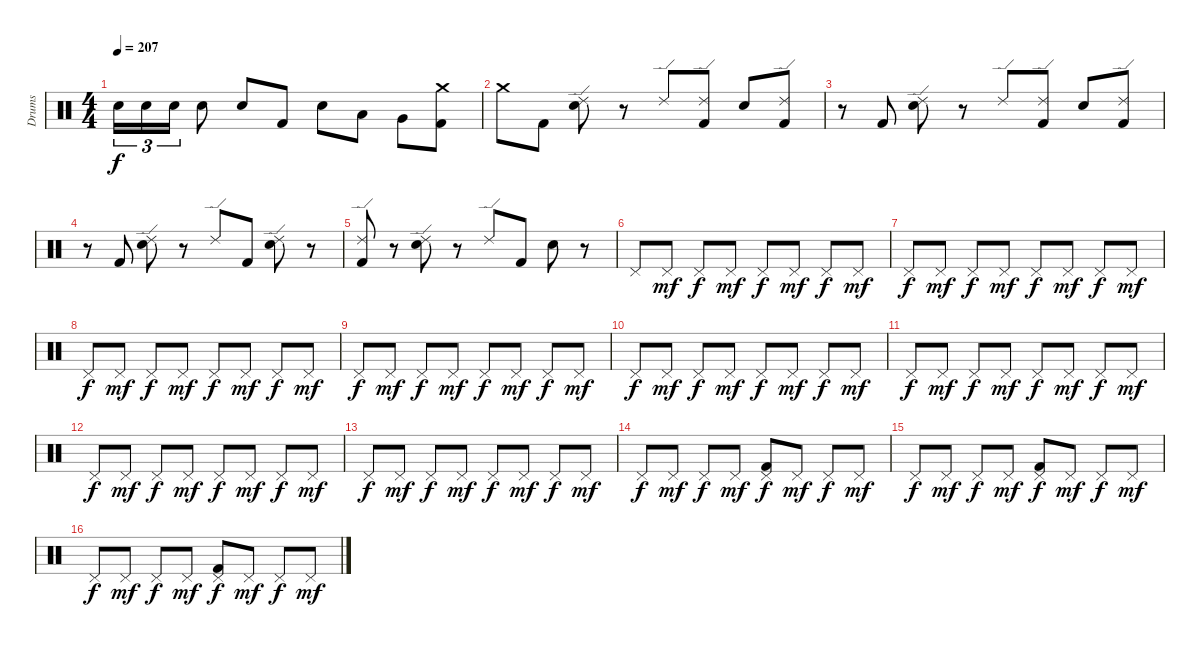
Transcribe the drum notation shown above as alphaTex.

\track ("Drums" "Drums") {instrument percussion}
\staff {score}
\articulation defaults
\ts (4 4)
\tempo 207
\clef neutral
\ks c "Snare (hit) 2".16{tu (3 2) dy f} "Snare (hit) 2".16{tu (3 2)} "Snare (hit) 2".16{tu (3 2)} "Snare (hit) 2".8 "Snare (hit) 2".8 "Kick (hit) 2".8 "Snare (hit) 2".8 "Low Tom (hit)".8 "Very Low Tom (hit)".8
("Crash medium (hit)" "Kick (hit) 2").8 |
"Crash medium (hit)".8 "Kick (hit) 2".8 ("Ride (edge) 2" "Snare (hit) 2").8 r.8 "Ride (edge) 2".8 ("Ride (edge) 2" "Kick (hit) 2").8 "Snare (hit) 2".8 ("Ride (edge) 2" "Kick (hit) 2").8 |
r.8 "Kick (hit) 2".8 ("Ride (edge) 2" "Snare (hit) 2").8 r.8 "Ride (edge) 2".8 ("Ride (edge) 2" "Kick (hit) 2").8 "Snare (hit) 2".8 ("Ride (edge) 2" "Kick (hit) 2").8 |
r.8 "Kick (hit) 2".8 ("Ride (edge) 2" "Snare (hit) 2").8 r.8 "Ride (edge) 2".8 "Kick (hit) 2".8 ("Ride (edge) 2" "Snare (hit) 2").8 r.8 |
("Ride (edge) 2" "Kick (hit) 2").8 r.8 ("Ride (edge) 2" "Snare (hit) 2").8 r.8 "Ride (edge) 2".8 "Kick (hit) 2".8 "Snare (hit) 2".8 r.8 |
"Pedal Hi-Hat (hit)".8 "Pedal Hi-Hat (hit)".8{dy mf} "Pedal Hi-Hat (hit)".8{dy f} "Pedal Hi-Hat (hit)".8{dy mf} "Pedal Hi-Hat (hit)".8{dy f} "Pedal Hi-Hat (hit)".8{dy mf} "Pedal Hi-Hat (hit)".8{dy f} "Pedal Hi-Hat (hit)".8{dy mf} |
"Pedal Hi-Hat (hit)".8{dy f} "Pedal Hi-Hat (hit)".8{dy mf} "Pedal Hi-Hat (hit)".8{dy f} "Pedal Hi-Hat (hit)".8{dy mf} "Pedal Hi-Hat (hit)".8{dy f} "Pedal Hi-Hat (hit)".8{dy mf} "Pedal Hi-Hat (hit)".8{dy f} "Pedal Hi-Hat (hit)".8{dy mf} |
"Pedal Hi-Hat (hit)".8{dy f} "Pedal Hi-Hat (hit)".8{dy mf} "Pedal Hi-Hat (hit)".8{dy f} "Pedal Hi-Hat (hit)".8{dy mf} "Pedal Hi-Hat (hit)".8{dy f} "Pedal Hi-Hat (hit)".8{dy mf} "Pedal Hi-Hat (hit)".8{dy f} "Pedal Hi-Hat (hit)".8{dy mf} |
"Pedal Hi-Hat (hit)".8{dy f} "Pedal Hi-Hat (hit)".8{dy mf} "Pedal Hi-Hat (hit)".8{dy f} "Pedal Hi-Hat (hit)".8{dy mf} "Pedal Hi-Hat (hit)".8{dy f} "Pedal Hi-Hat (hit)".8{dy mf} "Pedal Hi-Hat (hit)".8{dy f} "Pedal Hi-Hat (hit)".8{dy mf} |
"Pedal Hi-Hat (hit)".8{dy f} "Pedal Hi-Hat (hit)".8{dy mf} "Pedal Hi-Hat (hit)".8{dy f} "Pedal Hi-Hat (hit)".8{dy mf} "Pedal Hi-Hat (hit)".8{dy f} "Pedal Hi-Hat (hit)".8{dy mf} "Pedal Hi-Hat (hit)".8{dy f} "Pedal Hi-Hat (hit)".8{dy mf} |
"Pedal Hi-Hat (hit)".8{dy f} "Pedal Hi-Hat (hit)".8{dy mf} "Pedal Hi-Hat (hit)".8{dy f} "Pedal Hi-Hat (hit)".8{dy mf} "Pedal Hi-Hat (hit)".8{dy f} "Pedal Hi-Hat (hit)".8{dy mf} "Pedal Hi-Hat (hit)".8{dy f} "Pedal Hi-Hat (hit)".8{dy mf} |
"Pedal Hi-Hat (hit)".8{dy f} "Pedal Hi-Hat (hit)".8{dy mf} "Pedal Hi-Hat (hit)".8{dy f} "Pedal Hi-Hat (hit)".8{dy mf} "Pedal Hi-Hat (hit)".8{dy f} "Pedal Hi-Hat (hit)".8{dy mf} "Pedal Hi-Hat (hit)".8{dy f} "Pedal Hi-Hat (hit)".8{dy mf} |
"Pedal Hi-Hat (hit)".8{dy f} "Pedal Hi-Hat (hit)".8{dy mf} "Pedal Hi-Hat (hit)".8{dy f} "Pedal Hi-Hat (hit)".8{dy mf} "Pedal Hi-Hat (hit)".8{dy f} "Pedal Hi-Hat (hit)".8{dy mf} "Pedal Hi-Hat (hit)".8{dy f} "Pedal Hi-Hat (hit)".8{dy mf} |
"Pedal Hi-Hat (hit)".8{dy f} "Pedal Hi-Hat (hit)".8{dy mf} "Pedal Hi-Hat (hit)".8{dy f} "Pedal Hi-Hat (hit)".8{dy mf} ("Pedal Hi-Hat (hit)" "Kick (hit) 2").8{dy f} "Pedal Hi-Hat (hit)".8{dy mf} "Pedal Hi-Hat (hit)".8{dy f} "Pedal Hi-Hat (hit)".8{dy mf} |
"Pedal Hi-Hat (hit)".8{dy f} "Pedal Hi-Hat (hit)".8{dy mf} "Pedal Hi-Hat (hit)".8{dy f} "Pedal Hi-Hat (hit)".8{dy mf} ("Pedal Hi-Hat (hit)" "Kick (hit) 2").8{dy f} "Pedal Hi-Hat (hit)".8{dy mf} "Pedal Hi-Hat (hit)".8{dy f} "Pedal Hi-Hat (hit)".8{dy mf} |
"Pedal Hi-Hat (hit)".8{dy f} "Pedal Hi-Hat (hit)".8{dy mf} "Pedal Hi-Hat (hit)".8{dy f} "Pedal Hi-Hat (hit)".8{dy mf} ("Pedal Hi-Hat (hit)" "Kick (hit) 2").8{dy f} "Pedal Hi-Hat (hit)".8{dy mf} "Pedal Hi-Hat (hit)".8{dy f} "Pedal Hi-Hat (hit)".8{dy mf}
